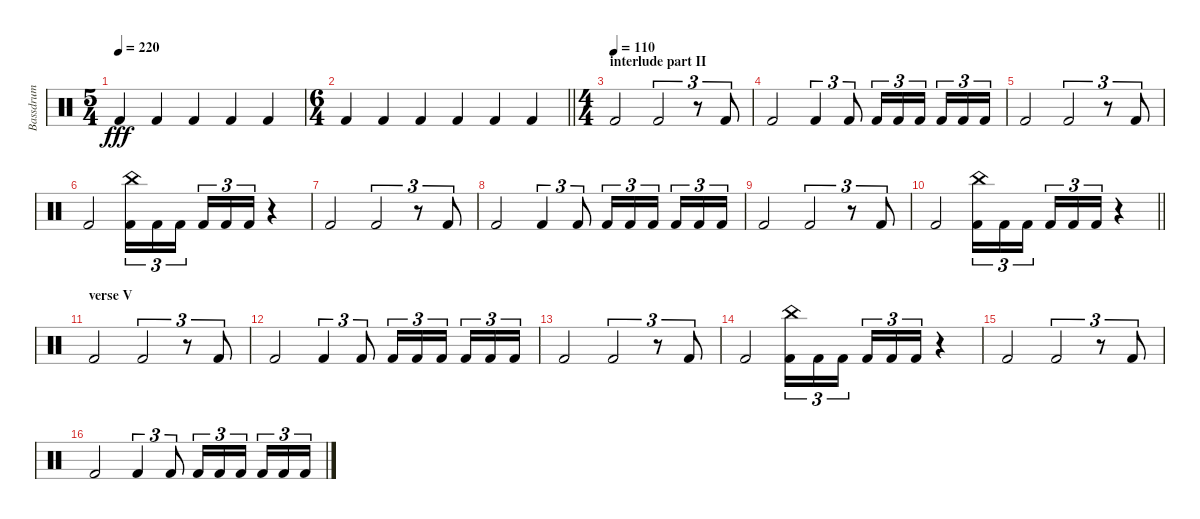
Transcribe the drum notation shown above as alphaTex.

\track ("Bassdrum" "Bassdrum") {instrument percussion}
\staff {score}
\articulation defaults
\ts (5 4)
\tempo 220
\clef neutral
\ks c "Kick (hit) 2".4{dy fff} "Kick (hit) 2".4 "Kick (hit) 2".4 "Kick (hit) 2".4 "Kick (hit) 2".4
|
\ts (6 4)
\barLineRight lightlight "Kick (hit) 2".4 "Kick (hit) 2".4 "Kick (hit) 2".4 "Kick (hit) 2".4 "Kick (hit) 2".4 "Kick (hit) 2".4
|
\ts (4 4)
\section ("" "interlude part II")
\tempo (110)
"Kick (hit) 2".2 "Kick (hit) 2".2{tu (3 2)} r.8{tu (3 2)} "Kick (hit) 2".8{tu (3 2)} |
"Kick (hit) 2".2 "Kick (hit) 2".4{tu (3 2)} "Kick (hit) 2".8{tu (3 2)} "Kick (hit) 2".16{tu (3 2)} "Kick (hit) 2".16{tu (3 2)} "Kick (hit) 2".16{tu (3 2) beam splitsecondary} "Kick (hit) 2".16{tu (3 2)} "Kick (hit) 2".16{tu (3 2)} "Kick (hit) 2".16{tu (3 2)} |
"Kick (hit) 2".2 "Kick (hit) 2".2{tu (3 2)} r.8{tu (3 2)} "Kick (hit) 2".8{tu (3 2)} |
"Kick (hit) 2".2 ("China (hit)" "Kick (hit) 2").16{tu (3 2)} "Kick (hit) 2".16{tu (3 2)} "Kick (hit) 2".16{tu (3 2) beam splitsecondary} "Kick (hit) 2".16{tu (3 2)} "Kick (hit) 2".16{tu (3 2)} "Kick (hit) 2".16{tu (3 2)} r.4 |
"Kick (hit) 2".2 "Kick (hit) 2".2{tu (3 2)} r.8{tu (3 2)} "Kick (hit) 2".8{tu (3 2)} |
"Kick (hit) 2".2 "Kick (hit) 2".4{tu (3 2)} "Kick (hit) 2".8{tu (3 2)} "Kick (hit) 2".16{tu (3 2)} "Kick (hit) 2".16{tu (3 2)} "Kick (hit) 2".16{tu (3 2) beam splitsecondary} "Kick (hit) 2".16{tu (3 2)} "Kick (hit) 2".16{tu (3 2)} "Kick (hit) 2".16{tu (3 2)} |
"Kick (hit) 2".2 "Kick (hit) 2".2{tu (3 2)} r.8{tu (3 2)} "Kick (hit) 2".8{tu (3 2)} |
\barLineRight lightlight "Kick (hit) 2".2
("China (hit)" "Kick (hit) 2").16{tu (3 2)} "Kick (hit) 2".16{tu (3 2)} "Kick (hit) 2".16{tu (3 2) beam splitsecondary} "Kick (hit) 2".16{tu (3 2)} "Kick (hit) 2".16{tu (3 2)} "Kick (hit) 2".16{tu (3 2)} r.4 |
\section ("" "verse V")
"Kick (hit) 2".2 "Kick (hit) 2".2{tu (3 2)} r.8{tu (3 2)} "Kick (hit) 2".8{tu (3 2)} |
"Kick (hit) 2".2 "Kick (hit) 2".4{tu (3 2)} "Kick (hit) 2".8{tu (3 2)} "Kick (hit) 2".16{tu (3 2)} "Kick (hit) 2".16{tu (3 2)} "Kick (hit) 2".16{tu (3 2) beam splitsecondary} "Kick (hit) 2".16{tu (3 2)} "Kick (hit) 2".16{tu (3 2)} "Kick (hit) 2".16{tu (3 2)} |
"Kick (hit) 2".2 "Kick (hit) 2".2{tu (3 2)} r.8{tu (3 2)} "Kick (hit) 2".8{tu (3 2)} |
"Kick (hit) 2".2 ("China (hit)" "Kick (hit) 2").16{tu (3 2)} "Kick (hit) 2".16{tu (3 2)} "Kick (hit) 2".16{tu (3 2) beam splitsecondary} "Kick (hit) 2".16{tu (3 2)} "Kick (hit) 2".16{tu (3 2)} "Kick (hit) 2".16{tu (3 2)} r.4 |
"Kick (hit) 2".2 "Kick (hit) 2".2{tu (3 2)} r.8{tu (3 2)} "Kick (hit) 2".8{tu (3 2)} |
"Kick (hit) 2".2 "Kick (hit) 2".4{tu (3 2)} "Kick (hit) 2".8{tu (3 2)} "Kick (hit) 2".16{tu (3 2)} "Kick (hit) 2".16{tu (3 2)} "Kick (hit) 2".16{tu (3 2) beam splitsecondary} "Kick (hit) 2".16{tu (3 2)} "Kick (hit) 2".16{tu (3 2)} "Kick (hit) 2".16{tu (3 2)}
